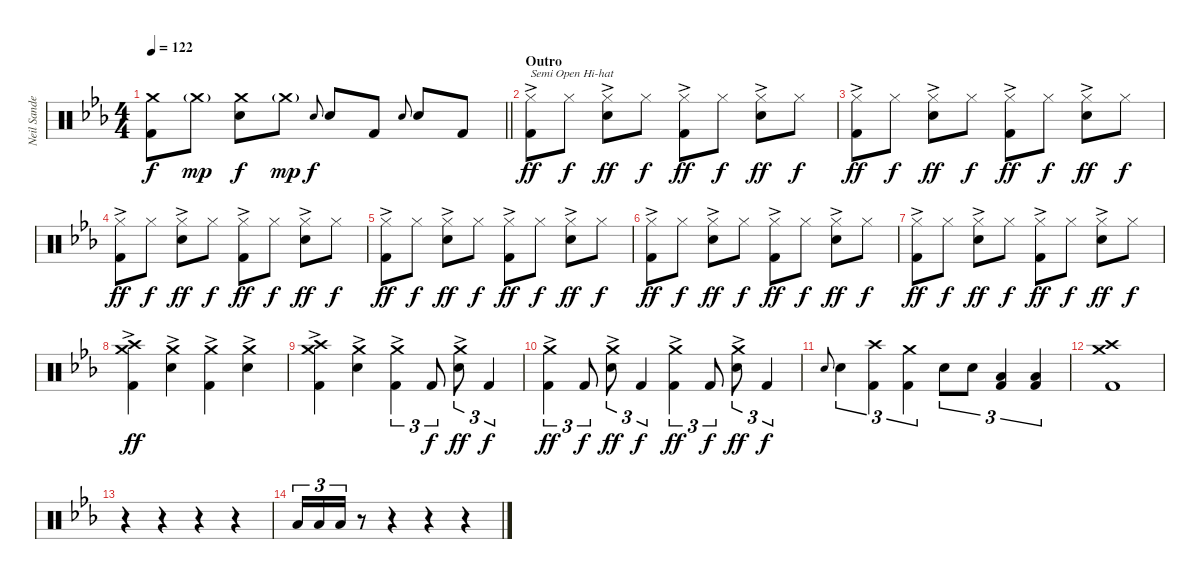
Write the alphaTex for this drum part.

\track ("Neil Sanderson" "Neil Sande") {instrument percussion}
\staff {score}
\articulation defaults
\ts (4 4)
\tempo 122
\clef neutral
\barLineRight lightlight
\ks cminor
("Crash medium (hit)" "Kick (hit) 2").8{dy f} "Crash medium (hit)"{g}.8{dy mp} ("Crash medium (hit)" "Electric Snare (hit)").8{dy f} "Crash medium (hit)"{g}.8{dy mp} "Electric Snare (hit)".8{gr onbeat dy f} "Electric Snare (hit)".8 "Kick (hit) 2".8 "Electric Snare (hit)".8{gr onbeat} "Electric Snare (hit)".8 "Kick (hit) 2".8 |
\section ("" "Outro")
("Hi-Hat (closed)"{ac} "Kick (hit) 2").8{txt "Semi Open Hi-hat" dy ff} "Hi-Hat (closed)".8{dy f} ("Hi-Hat (closed)"{ac} "Electric Snare (hit)").8{dy ff} "Hi-Hat (closed)".8{dy f} ("Hi-Hat (closed)"{ac} "Kick (hit) 2").8{dy ff} "Hi-Hat (closed)".8{dy f} ("Hi-Hat (closed)"{ac} "Electric Snare (hit)").8{dy ff} "Hi-Hat (closed)".8{dy f} |
("Hi-Hat (closed)"{ac} "Kick (hit) 2").8{dy ff} "Hi-Hat (closed)".8{dy f} ("Hi-Hat (closed)"{ac} "Electric Snare (hit)").8{dy ff} "Hi-Hat (closed)".8{dy f} ("Hi-Hat (closed)"{ac} "Kick (hit) 2").8{dy ff} "Hi-Hat (closed)".8{dy f} ("Hi-Hat (closed)"{ac} "Electric Snare (hit)").8{dy ff} "Hi-Hat (closed)".8{dy f} |
("Hi-Hat (closed)"{ac} "Kick (hit) 2").8{dy ff} "Hi-Hat (closed)".8{dy f} ("Hi-Hat (closed)"{ac} "Electric Snare (hit)").8{dy ff} "Hi-Hat (closed)".8{dy f} ("Hi-Hat (closed)"{ac} "Kick (hit) 2").8{dy ff} "Hi-Hat (closed)".8{dy f} ("Hi-Hat (closed)"{ac} "Electric Snare (hit)").8{dy ff} "Hi-Hat (closed)".8{dy f} |
("Hi-Hat (closed)"{ac} "Kick (hit) 2").8{dy ff} "Hi-Hat (closed)".8{dy f} ("Hi-Hat (closed)"{ac} "Electric Snare (hit)").8{dy ff} "Hi-Hat (closed)".8{dy f} ("Hi-Hat (closed)"{ac} "Kick (hit) 2").8{dy ff} "Hi-Hat (closed)".8{dy f} ("Hi-Hat (closed)"{ac} "Electric Snare (hit)").8{dy ff} "Hi-Hat (closed)".8{dy f} |
("Hi-Hat (closed)"{ac} "Kick (hit) 2").8{dy ff} "Hi-Hat (closed)".8{dy f} ("Hi-Hat (closed)"{ac} "Electric Snare (hit)").8{dy ff} "Hi-Hat (closed)".8{dy f} ("Hi-Hat (closed)"{ac} "Kick (hit) 2").8{dy ff} "Hi-Hat (closed)".8{dy f} ("Hi-Hat (closed)"{ac} "Electric Snare (hit)").8{dy ff} "Hi-Hat (closed)".8{dy f} |
("Hi-Hat (closed)"{ac} "Kick (hit) 2").8{dy ff} "Hi-Hat (closed)".8{dy f} ("Hi-Hat (closed)"{ac} "Electric Snare (hit)").8{dy ff} "Hi-Hat (closed)".8{dy f} ("Hi-Hat (closed)"{ac} "Kick (hit) 2").8{dy ff} "Hi-Hat (closed)".8{dy f} ("Hi-Hat (closed)"{ac} "Electric Snare (hit)").8{dy ff} "Hi-Hat (closed)".8{dy f} |
("Crash medium (hit)"{ac} "Crash high (hit)" "Kick (hit) 2").4{dy ff} ("Crash medium (hit)"{ac} "Electric Snare (hit)"{ac}).4 ("Crash medium (hit)"{ac} "Kick (hit) 2").4 ("Crash medium (hit)"{ac} "Electric Snare (hit)"{ac}).4 |
("Crash medium (hit)"{ac} "Crash high (hit)" "Kick (hit) 2").4 ("Crash medium (hit)"{ac} "Electric Snare (hit)"{ac}).4 ("Crash medium (hit)"{ac} "Kick (hit) 2").4{tu (3 2)} "Kick (hit) 2".8{tu (3 2) dy f} ("Crash medium (hit)"{ac} "Electric Snare (hit)"{ac}).8{tu (3 2) dy ff} "Kick (hit) 2".4{tu (3 2) dy f} |
("Crash medium (hit)"{ac} "Kick (hit) 2").4{tu (3 2) dy ff} "Kick (hit) 2".8{tu (3 2) dy f} ("Crash medium (hit)"{ac} "Electric Snare (hit)"{ac}).8{tu (3 2) dy ff} "Kick (hit) 2".4{tu (3 2) dy f} ("Crash medium (hit)"{ac} "Kick (hit) 2").4{tu (3 2) dy ff} "Kick (hit) 2".8{tu (3 2) dy f} ("Crash medium (hit)"{ac} "Electric Snare (hit)"{ac}).8{tu (3 2) dy ff} "Kick (hit) 2".4{tu (3 2) dy f} |
"Electric Snare (hit)".8{gr onbeat} "Electric Snare (hit)".4{tu (3 2)} ("Crash high (hit)" "Kick (hit) 2").4{tu (3 2)} ("Crash medium (hit)" "Kick (hit) 2").4{tu (3 2)} "Electric Snare (hit)".8{tu (3 2)} "Electric Snare (hit)".8{tu (3 2)} ("Low Tom (hit)" "Kick (hit) 2").4{tu (3 2)} ("Low Floor Tom (hit)" "Kick (hit) 2").4{tu (3 2)} |
("Crash medium (hit)" "Crash high (hit)" "Kick (hit) 2").1 |
r.4 r.4 r.4 r.4 |
"Low Tom (hit)".16{tu (3 2)} "Low Tom (hit)".16{tu (3 2)} "Low Floor Tom (hit)".16{tu (3 2)} r.8 r.4 r.4 r.4
